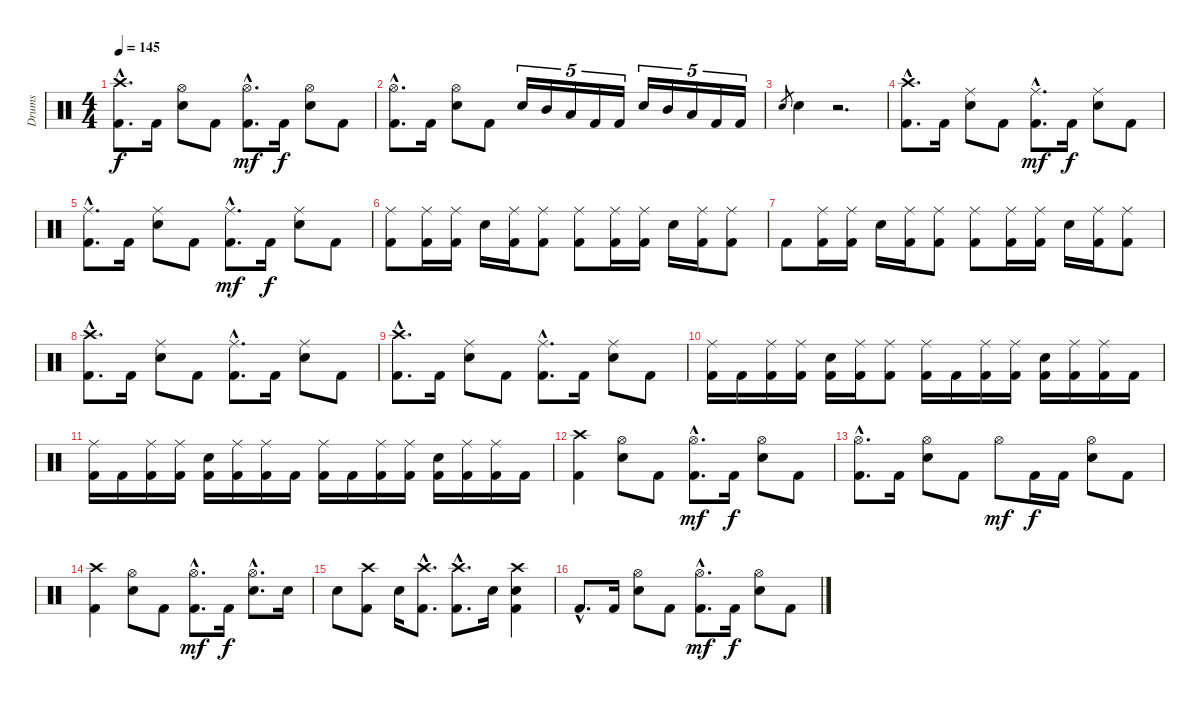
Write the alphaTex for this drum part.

\track ("Drums" "Drums") {instrument percussion}
\staff {score}
\articulation defaults
\ts (4 4)
\tempo 145
\clef neutral
\ks c
("Crash high (hit)"{hac} "Kick (hit) 2"{hac}).8{d dy f} "Kick (hit) 2".16 ("Hi-Hat (open)" "Electric Snare (hit)").8 "Kick (hit) 2".8 ("Hi-Hat (open)"{hac} "Kick (hit) 2"{hac}).8{d dy mf} "Kick (hit) 2".16{dy f} ("Hi-Hat (open)" "Electric Snare (hit)").8 "Kick (hit) 2".8 |
("Hi-Hat (open)"{hac} "Kick (hit) 2"{hac}).8{d} "Kick (hit) 2".16 ("Hi-Hat (open)" "Electric Snare (hit)").8 "Kick (hit) 2".8 "Electric Snare (hit)".16{tu (5 4)} "Mid Tom (hit)".16{tu (5 4)} "Low Tom (hit)".16{tu (5 4)} "Kick (hit) 2".16{tu (5 4)} "Kick (hit) 2".16{tu (5 4)} "Electric Snare (hit)".16{tu (5 4)} "Mid Tom (hit)".16{tu (5 4)} "Low Tom (hit)".16{tu (5 4)} "Kick (hit) 2".16{tu (5 4)} "Kick (hit) 2".16{tu (5 4)} |
"Electric Snare (hit)".8{gr} "Electric Snare (hit)".4 r.2{d} |
("Crash high (hit)"{hac} "Kick (hit) 2"{hac}).8{d} "Kick (hit) 2".16 ("Ride (middle)" "Electric Snare (hit)").8 "Kick (hit) 2".8 ("Ride (middle)"{hac} "Kick (hit) 2"{hac}).8{d dy mf} "Kick (hit) 2".16{dy f} ("Ride (middle)" "Electric Snare (hit)").8 "Kick (hit) 2".8 |
("Ride (middle)"{hac} "Kick (hit) 2"{hac}).8{d} "Kick (hit) 2".16 ("Ride (middle)" "Electric Snare (hit)").8 "Kick (hit) 2".8 ("Ride (middle)"{hac} "Kick (hit) 2"{hac}).8{d dy mf} "Kick (hit) 2".16{dy f} ("Ride (middle)" "Electric Snare (hit)").8 "Kick (hit) 2".8 |
("Ride (middle)" "Kick (hit) 2").8 ("Ride (middle)" "Kick (hit) 2").16 ("Ride (middle)" "Kick (hit) 2").16 "Electric Snare (hit)".16 ("Ride (middle)" "Kick (hit) 2").16 ("Ride (middle)" "Kick (hit) 2").8 ("Ride (middle)" "Kick (hit) 2").8 ("Ride (middle)" "Kick (hit) 2").16 ("Ride (middle)" "Kick (hit) 2").16 "Electric Snare (hit)".16 ("Ride (middle)" "Kick (hit) 2").16 ("Ride (middle)" "Kick (hit) 2").8 |
"Kick (hit) 2".8 ("Ride (middle)" "Kick (hit) 2").16 ("Ride (middle)" "Kick (hit) 2").16 "Electric Snare (hit)".16 ("Ride (middle)" "Kick (hit) 2").16 ("Ride (middle)" "Kick (hit) 2").8 ("Ride (middle)" "Kick (hit) 2").8 ("Ride (middle)" "Kick (hit) 2").16 ("Ride (middle)" "Kick (hit) 2").16 "Electric Snare (hit)".16 ("Ride (middle)" "Kick (hit) 2").16 ("Ride (middle)" "Kick (hit) 2").8 |
("Crash high (hit)"{hac} "Kick (hit) 2"{hac}).8{d} "Kick (hit) 2".16 ("Ride (middle)" "Electric Snare (hit)").8 "Kick (hit) 2".8 ("Ride (middle)"{hac} "Kick (hit) 2"{hac}).8{d} "Kick (hit) 2".16 ("Ride (middle)" "Electric Snare (hit)").8 "Kick (hit) 2".8 |
("Crash high (hit)"{hac} "Kick (hit) 2"{hac}).8{d} "Kick (hit) 2".16 ("Ride (middle)" "Electric Snare (hit)").8 "Kick (hit) 2".8 ("Ride (middle)"{hac} "Kick (hit) 2"{hac}).8{d} "Kick (hit) 2".16 ("Ride (middle)" "Electric Snare (hit)").8 "Kick (hit) 2".8 |
("Ride (middle)" "Kick (hit) 2").16 "Kick (hit) 2".16 ("Ride (middle)" "Kick (hit) 2").16 ("Ride (middle)" "Kick (hit) 2").16 ("Electric Snare (hit)" "Kick (hit) 2").16 ("Ride (middle)" "Kick (hit) 2").16 ("Ride (middle)" "Kick (hit) 2").8 ("Ride (middle)" "Kick (hit) 2").16 "Kick (hit) 2".16 ("Ride (middle)" "Kick (hit) 2").16 ("Ride (middle)" "Kick (hit) 2").16 ("Electric Snare (hit)" "Kick (hit) 2").16 ("Ride (middle)" "Kick (hit) 2").16 ("Ride (middle)" "Kick (hit) 2").16 "Kick (hit) 2".16 |
("Ride (middle)" "Kick (hit) 2").16 "Kick (hit) 2".16 ("Ride (middle)" "Kick (hit) 2").16 ("Ride (middle)" "Kick (hit) 2").16 ("Electric Snare (hit)" "Kick (hit) 2").16 ("Ride (middle)" "Kick (hit) 2").16 ("Ride (middle)" "Kick (hit) 2").16 "Kick (hit) 2".16 ("Ride (middle)" "Kick (hit) 2").16 "Kick (hit) 2".16 ("Ride (middle)" "Kick (hit) 2").16 ("Ride (middle)" "Kick (hit) 2").16 ("Electric Snare (hit)" "Kick (hit) 2").16 ("Ride (middle)" "Kick (hit) 2").16 ("Ride (middle)" "Kick (hit) 2").16 "Kick (hit) 2".16 |
("Crash high (hit)" "Kick (hit) 2").4 ("Hi-Hat (open)" "Electric Snare (hit)").8 "Kick (hit) 2".8 ("Hi-Hat (open)"{hac} "Kick (hit) 2"{hac}).8{d dy mf} "Kick (hit) 2".16{dy f} ("Hi-Hat (open)" "Electric Snare (hit)").8 "Kick (hit) 2".8 |
("Hi-Hat (open)"{hac} "Kick (hit) 2"{hac}).8{d} "Kick (hit) 2".16 ("Hi-Hat (open)" "Electric Snare (hit)").8 "Kick (hit) 2".8 "Hi-Hat (open)".8{dy mf} "Kick (hit) 2".16{dy f} "Kick (hit) 2".16 ("Hi-Hat (open)" "Electric Snare (hit)").8 "Kick (hit) 2".8 |
("Crash high (hit)" "Kick (hit) 2").4 ("Hi-Hat (open)" "Electric Snare (hit)").8 "Kick (hit) 2".8 ("Hi-Hat (open)"{hac} "Kick (hit) 2"{hac}).8{d dy mf} "Kick (hit) 2".16{dy f} ("Hi-Hat (open)"{hac} "Electric Snare (hit)"{hac}).8{d} "Electric Snare (hit)".16 |
"Electric Snare (hit)".8 ("Crash high (hit)" "Kick (hit) 2").8 "Electric Snare (hit)".16 ("Crash high (hit)"{hac} "Kick (hit) 2"{hac}).8{d} ("Crash high (hit)"{hac} "Kick (hit) 2"{hac}).8{d} "Electric Snare (hit)".16 ("Crash high (hit)" "Electric Snare (hit)" "Kick (hit) 2").4 |
"Kick (hit) 2"{hac}.8{d} "Kick (hit) 2".16 ("Hi-Hat (open)" "Electric Snare (hit)").8 "Kick (hit) 2".8 ("Hi-Hat (open)"{hac} "Kick (hit) 2"{hac}).8{d dy mf} "Kick (hit) 2".16{dy f} ("Hi-Hat (open)" "Electric Snare (hit)").8 "Kick (hit) 2".8
